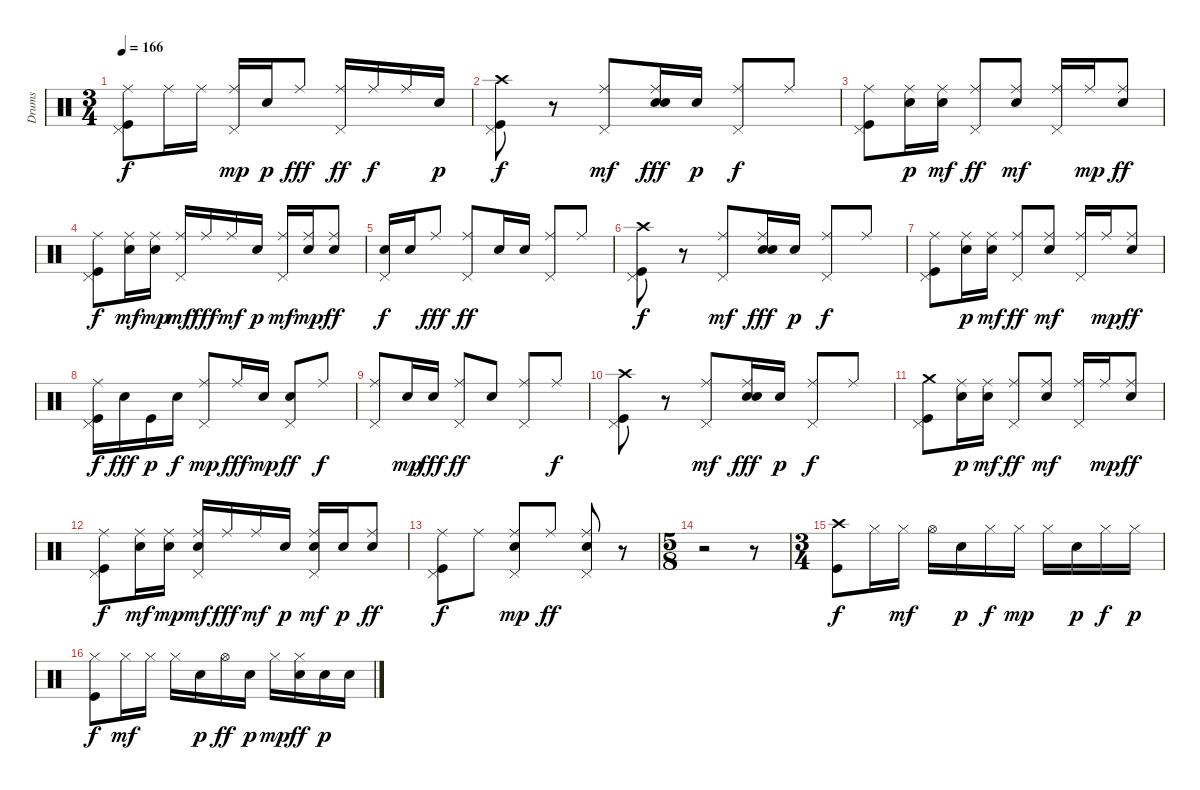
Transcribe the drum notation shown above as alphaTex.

\track ("Drums" "Drums") {instrument percussion}
\staff {score}
\articulation defaults
\ts (3 4)
\tempo 166
\clef neutral
\ks c
("Kick (hit)" "Pedal Hi-Hat (hit)" "Ride (middle)").8{dy f} "Ride (middle)".16 "Ride (middle)".16 ("Pedal Hi-Hat (hit)" "Ride (middle)").16{dy mp} "Snare (hit) 2".16{dy p} "Ride (middle)".8{dy fff} ("Pedal Hi-Hat (hit)" "Ride (middle)").16{dy ff} "Ride (middle)".16{dy f} "Ride (middle)".16 "Snare (hit) 2".16{dy p} |
("Kick (hit)" "Pedal Hi-Hat (hit)" "Crash high (hit)").8{dy f} r.8 ("Pedal Hi-Hat (hit)" "Ride (middle)").8{dy mf} ("Snare (hit) 2" "Electric Snare (hit)" "Ride (middle)").16{dy fff} "Snare (hit) 2".16{dy p} ("Pedal Hi-Hat (hit)" "Ride (middle)").8{dy f} "Ride (middle)".8 |
("Kick (hit)" "Pedal Hi-Hat (hit)" "Ride (middle)").8 ("Snare (hit) 2" "Ride (middle)").16{dy p} ("Snare (hit) 2" "Ride (middle)").16{dy mf} ("Pedal Hi-Hat (hit)" "Ride (middle)").8{dy ff} ("Electric Snare (hit)" "Ride (middle)").8{dy mf} ("Pedal Hi-Hat (hit)" "Ride (middle)").16 "Ride (middle)".16{dy mp} ("Snare (hit) 2" "Ride (middle)").8{dy ff} |
("Kick (hit)" "Pedal Hi-Hat (hit)" "Ride (middle)").8{dy f} ("Snare (hit) 2" "Ride (middle)").16{dy mf} ("Snare (hit) 2" "Ride (middle)").16{dy mp} ("Pedal Hi-Hat (hit)" "Ride (middle)").16{dy mf} "Ride (middle)".16{dy fff} "Ride (middle)".16{dy mf} "Snare (hit) 2".16{dy p} ("Pedal Hi-Hat (hit)" "Ride (middle)").16{dy mf} ("Snare (hit) 2" "Ride (middle)").16{dy mp} ("Snare (hit) 2" "Ride (middle)").8{dy ff} |
("Electric Snare (hit)" "Pedal Hi-Hat (hit)").16{dy f} "Electric Snare (hit)".16 "Ride (middle)".8{dy fff} ("Pedal Hi-Hat (hit)" "Ride (middle)").8{dy ff} "Electric Snare (hit)".16 "Electric Snare (hit)".16 ("Pedal Hi-Hat (hit)" "Ride (middle)").8 "Ride (middle)".8 |
("Kick (hit)" "Pedal Hi-Hat (hit)" "Crash high (hit)").8{dy f} r.8 ("Pedal Hi-Hat (hit)" "Ride (middle)").8{dy mf} ("Snare (hit) 2" "Electric Snare (hit)" "Ride (middle)").16{dy fff} "Snare (hit) 2".16{dy p} ("Pedal Hi-Hat (hit)" "Ride (middle)").8{dy f} "Ride (middle)".8 |
("Kick (hit)" "Pedal Hi-Hat (hit)" "Ride (middle)").8 ("Snare (hit) 2" "Ride (middle)").16{dy p} ("Snare (hit) 2" "Ride (middle)").16{dy mf} ("Pedal Hi-Hat (hit)" "Ride (middle)").8{dy ff} ("Electric Snare (hit)" "Ride (middle)").8{dy mf} ("Pedal Hi-Hat (hit)" "Ride (middle)").16 "Ride (middle)".16{dy mp} ("Snare (hit) 2" "Ride (middle)").8{dy ff} |
("Kick (hit)" "Pedal Hi-Hat (hit)" "Ride (middle)").16{dy f} "Electric Snare (hit)".16{dy fff} "Kick (hit)".16{dy p} "Electric Snare (hit)".16{dy f} ("Pedal Hi-Hat (hit)" "Ride (middle)").8{dy mp} "Ride (middle)".16{dy fff} "Snare (hit) 2".16{dy mp} ("Electric Snare (hit)" "Pedal Hi-Hat (hit)").8{dy ff} "Ride (middle)".8{dy f} |
("Pedal Hi-Hat (hit)" "Ride (middle)").8 "Electric Snare (hit)".16{dy mp} "Electric Snare (hit)".16{dy fff} ("Pedal Hi-Hat (hit)" "Ride (middle)").8{dy ff} "Electric Snare (hit)".8 ("Pedal Hi-Hat (hit)" "Ride (middle)").8 "Ride (middle)".8{dy f} |
("Kick (hit)" "Pedal Hi-Hat (hit)" "Crash high (hit)").8 r.8 ("Pedal Hi-Hat (hit)" "Ride (middle)").8{dy mf} ("Snare (hit) 2" "Electric Snare (hit)" "Ride (middle)").16{dy fff} "Snare (hit) 2".16{dy p} ("Pedal Hi-Hat (hit)" "Ride (middle)").8{dy f} "Ride (middle)".8 |
("Kick (hit)" "Pedal Hi-Hat (hit)" "Crash medium (hit)").8 ("Snare (hit) 2" "Ride (middle)").16{dy p} ("Snare (hit) 2" "Ride (middle)").16{dy mf} ("Pedal Hi-Hat (hit)" "Ride (middle)").8{dy ff} ("Electric Snare (hit)" "Ride (middle)").8{dy mf} ("Pedal Hi-Hat (hit)" "Ride (middle)").16 "Ride (middle)".16{dy mp} ("Snare (hit) 2" "Ride (middle)").8{dy ff} |
("Kick (hit)" "Pedal Hi-Hat (hit)" "Ride (middle)").8{dy f} ("Snare (hit) 2" "Ride (middle)").16{dy mf} ("Snare (hit) 2" "Ride (middle)").16{dy mp} ("Electric Snare (hit)" "Pedal Hi-Hat (hit)" "Ride (middle)").16{dy mf} "Ride (middle)".16{dy fff} "Ride (middle)".16{dy mf} "Snare (hit) 2".16{dy p} ("Electric Snare (hit)" "Pedal Hi-Hat (hit)" "Ride (middle)").16{dy mf} "Snare (hit) 2".16{dy p} ("Snare (hit) 2" "Ride (middle)").8{dy ff} |
("Kick (hit)" "Pedal Hi-Hat (hit)" "Ride (middle)").8{dy f} "Ride (middle)".8 ("Electric Snare (hit)" "Pedal Hi-Hat (hit)" "Ride (middle)").8{dy mp} "Ride (middle)".8{dy ff} ("Electric Snare (hit)" "Pedal Hi-Hat (hit)" "Ride (middle)").8 r.8 |
\ts (5 8)
r.2 r.8 |
\ts (3 4)
("Kick (hit)" "Crash high (hit)").8{dy f} "Hi-Hat (closed)".16 "Hi-Hat (closed)".16{dy mf} "Hi-Hat (open)".16 "Snare (hit) 2".16{dy p} "Hi-Hat (closed)".16{dy f} "Hi-Hat (closed)".16{dy mp} "Hi-Hat (closed)".16 "Snare (hit) 2".16{dy p} "Hi-Hat (closed)".16{dy f} "Hi-Hat (closed)".16{dy p} |
("Kick (hit)" "Hi-Hat (closed)").8{dy f} "Hi-Hat (closed)".16{dy mf} "Hi-Hat (closed)".16 "Hi-Hat (closed)".16 "Snare (hit) 2".16{dy p} "Hi-Hat (open)".16{dy ff} "Snare (hit) 2".16{dy p} "Hi-Hat (closed)".16{dy mp} ("Snare (hit) 2" "Hi-Hat (closed)").16{dy ff} "Snare (hit) 2".16{dy p} "Snare (hit) 2".16
